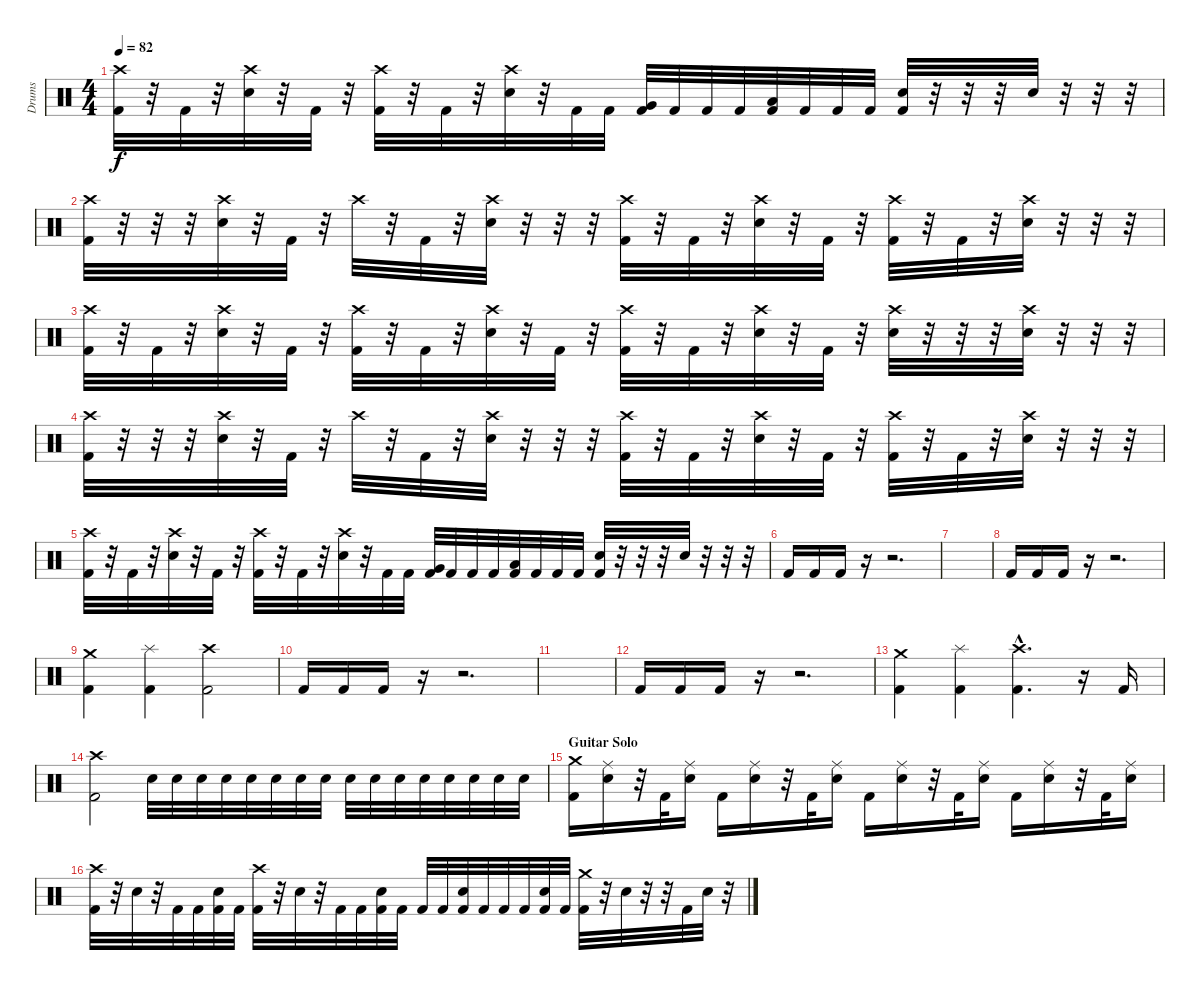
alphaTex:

\track ("Drums" "Drums") {instrument percussion}
\staff {score}
\articulation defaults
\ts (4 4)
\tempo 82
\clef neutral
\ks c
("Crash high (hit)" "Kick (hit) 2").32{dy f} r.32 "Kick (hit) 2".32 r.32 ("Crash high (hit)" "Electric Snare (hit)").32 r.32 "Kick (hit) 2".32 r.32 ("Crash high (hit)" "Kick (hit) 2").32 r.32 "Kick (hit) 2".32 r.32 ("Crash high (hit)" "Electric Snare (hit)").32 r.32 "Kick (hit) 2".32 "Kick (hit) 2".32 ("Very Low Tom (hit)" "Kick (hit) 2").32 "Kick (hit) 2".32 "Kick (hit) 2".32 "Kick (hit) 2".32 ("Low Tom (hit)" "Kick (hit) 2").32 "Kick (hit) 2".32 "Kick (hit) 2".32 "Kick (hit) 2".32 ("Electric Snare (hit)" "Kick (hit) 2").32 r.32 r.32 r.32 "Electric Snare (hit)".32 r.32 r.32 r.32 |
("Crash high (hit)" "Kick (hit) 2").32 r.32 r.32 r.32 ("Crash high (hit)" "Electric Snare (hit)").32 r.32 "Kick (hit) 2".32 r.32 "Crash high (hit)".32 r.32 "Kick (hit) 2".32 r.32 ("Crash high (hit)" "Electric Snare (hit)").32 r.32 r.32 r.32 ("Crash high (hit)" "Kick (hit) 2").32 r.32 "Kick (hit) 2".32 r.32 ("Crash high (hit)" "Electric Snare (hit)").32 r.32 "Kick (hit) 2".32 r.32 ("Crash high (hit)" "Kick (hit) 2").32 r.32 "Kick (hit) 2".32 r.32 ("Crash high (hit)" "Electric Snare (hit)").32 r.32 r.32 r.32 |
("Crash high (hit)" "Kick (hit) 2").32 r.32 "Kick (hit) 2".32 r.32 ("Crash high (hit)" "Electric Snare (hit)").32 r.32 "Kick (hit) 2".32 r.32 ("Crash high (hit)" "Kick (hit) 2").32 r.32 "Kick (hit) 2".32 r.32 ("Crash high (hit)" "Electric Snare (hit)").32 r.32 "Kick (hit) 2".32 r.32 ("Crash high (hit)" "Kick (hit) 2").32 r.32 "Kick (hit) 2".32 r.32 ("Crash high (hit)" "Electric Snare (hit)").32 r.32 "Kick (hit) 2".32 r.32 ("Crash high (hit)" "Electric Snare (hit)").32 r.32 r.32 r.32 ("Crash high (hit)" "Electric Snare (hit)").32 r.32 r.32 r.32 |
("Crash high (hit)" "Kick (hit) 2").32 r.32 r.32 r.32 ("Crash high (hit)" "Electric Snare (hit)").32 r.32 "Kick (hit) 2".32 r.32 "Crash high (hit)".32 r.32 "Kick (hit) 2".32 r.32 ("Crash high (hit)" "Electric Snare (hit)").32 r.32 r.32 r.32 ("Crash high (hit)" "Kick (hit) 2").32 r.32 "Kick (hit) 2".32 r.32 ("Crash high (hit)" "Electric Snare (hit)").32 r.32 "Kick (hit) 2".32 r.32 ("Crash high (hit)" "Kick (hit) 2").32 r.32 "Kick (hit) 2".32 r.32 ("Crash high (hit)" "Electric Snare (hit)").32 r.32 r.32 r.32 |
("Crash high (hit)" "Kick (hit) 2").32 r.32 "Kick (hit) 2".32 r.32 ("Crash high (hit)" "Electric Snare (hit)").32 r.32 "Kick (hit) 2".32 r.32 ("Crash high (hit)" "Kick (hit) 2").32 r.32 "Kick (hit) 2".32 r.32 ("Crash high (hit)" "Electric Snare (hit)").32 r.32 "Kick (hit) 2".32 "Kick (hit) 2".32 ("Very Low Tom (hit)" "Kick (hit) 2").32 "Kick (hit) 2".32 "Kick (hit) 2".32 "Kick (hit) 2".32 ("Low Tom (hit)" "Kick (hit) 2").32 "Kick (hit) 2".32 "Kick (hit) 2".32 "Kick (hit) 2".32 ("Electric Snare (hit)" "Kick (hit) 2").32 r.32 r.32 r.32 "Electric Snare (hit)".32 r.32 r.32 r.32 |
"Kick (hit) 2".16 "Kick (hit) 2".16 "Kick (hit) 2".16 r.16 r.2{d} |
|
"Kick (hit) 2".16 "Kick (hit) 2".16 "Kick (hit) 2".16 r.16 r.2{d} |
("Crash medium (hit)" "Kick (hit) 2").4 ("Splash (hit)" "Kick (hit) 2").4 ("Crash high (hit)" "Kick (hit) 2").2 |
"Kick (hit) 2".16 "Kick (hit) 2".16 "Kick (hit) 2".16 r.16 r.2{d} |
|
"Kick (hit) 2".16 "Kick (hit) 2".16 "Kick (hit) 2".16 r.16 r.2{d} |
("Crash medium (hit)" "Kick (hit) 2").4 ("Splash (hit)" "Kick (hit) 2").4 ("Crash high (hit)"{hac} "Kick (hit) 2"{hac}).4{d} r.16 "Kick (hit) 2".16 |
("Crash high (hit)" "Kick (hit) 2").2 "Electric Snare (hit)".32 "Electric Snare (hit)".32 "Electric Snare (hit)".32 "Electric Snare (hit)".32 "Electric Snare (hit)".32 "Electric Snare (hit)".32 "Electric Snare (hit)".32 "Electric Snare (hit)".32 "Electric Snare (hit)".32 "Electric Snare (hit)".32 "Electric Snare (hit)".32 "Electric Snare (hit)".32 "Electric Snare (hit)".32 "Electric Snare (hit)".32 "Electric Snare (hit)".32 "Electric Snare (hit)".32 |
\section ("" "Guitar Solo")
("Crash medium (hit)" "Kick (hit) 2").16 ("Ride (middle)" "Electric Snare (hit)").16 r.32 "Kick (hit) 2".32 ("Ride (middle)" "Electric Snare (hit)").16 "Kick (hit) 2".16 ("Ride (middle)" "Electric Snare (hit)").16 r.32 "Kick (hit) 2".32 ("Ride (middle)" "Electric Snare (hit)").16 "Kick (hit) 2".16 ("Ride (middle)" "Electric Snare (hit)").16 r.32 "Kick (hit) 2".32 ("Ride (middle)" "Electric Snare (hit)").16 "Kick (hit) 2".16 ("Ride (middle)" "Electric Snare (hit)").16 r.32 "Kick (hit) 2".32 ("Ride (middle)" "Electric Snare (hit)").16 |
("Crash high (hit)" "Kick (hit) 2").32 r.32 "Electric Snare (hit)".32 r.32 "Kick (hit) 2".32 "Kick (hit) 2".32 ("Electric Snare (hit)" "Kick (hit) 2").32 "Kick (hit) 2".32 ("Crash high (hit)" "Kick (hit) 2").32 r.32 "Electric Snare (hit)".32 r.32 "Kick (hit) 2".32 "Kick (hit) 2".32 ("Electric Snare (hit)" "Kick (hit) 2").32 "Kick (hit) 2".32 "Kick (hit) 2".32 "Kick (hit) 2".32 ("Electric Snare (hit)" "Kick (hit) 2").32 "Kick (hit) 2".32 "Kick (hit) 2".32 "Kick (hit) 2".32 ("Electric Snare (hit)" "Kick (hit) 2").32 "Kick (hit) 2".32 ("Crash medium (hit)" "Kick (hit) 2").32 r.32 "Electric Snare (hit)".32 r.32 r.32 "Kick (hit) 2".32 "Electric Snare (hit)".32 r.32
